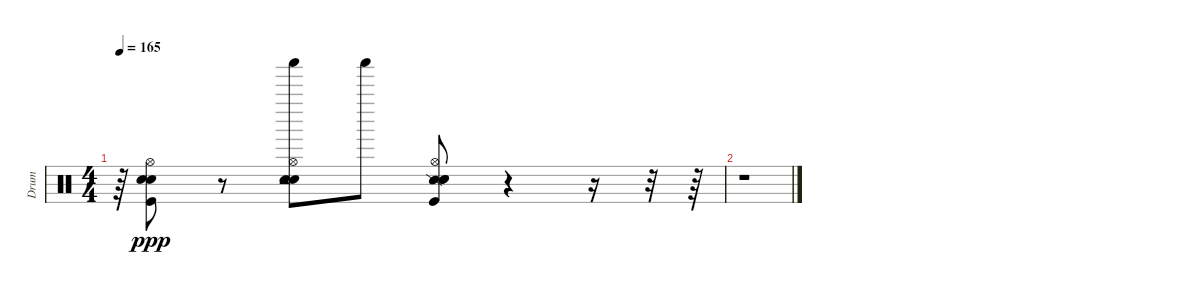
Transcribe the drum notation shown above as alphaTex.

\track ("Drum" "Drum") {instrument percussion}
\staff {score}
\articulation defaults
\ts (4 4)
\tempo 165
\clef neutral
\ks c
r.64{dy f} ("Kick (hit)" "Hand Clap (hit)" "Electric Snare (hit)" "Hi-Hat (open)").8{dy ppp} r.8 ("Hand Clap (hit)" "Electric Snare (hit)" "Shaker (hit)" "Tambourine (hit)" "Hi-Hat (open)").8 "Shaker (hit)".8 ("Snare (side stick) 2" "Kick (hit)" "Hand Clap (hit)" "Electric Snare (hit)" "Hi-Hat (open)").8 r.4 r.16 r.32 r.64 |
r.1
